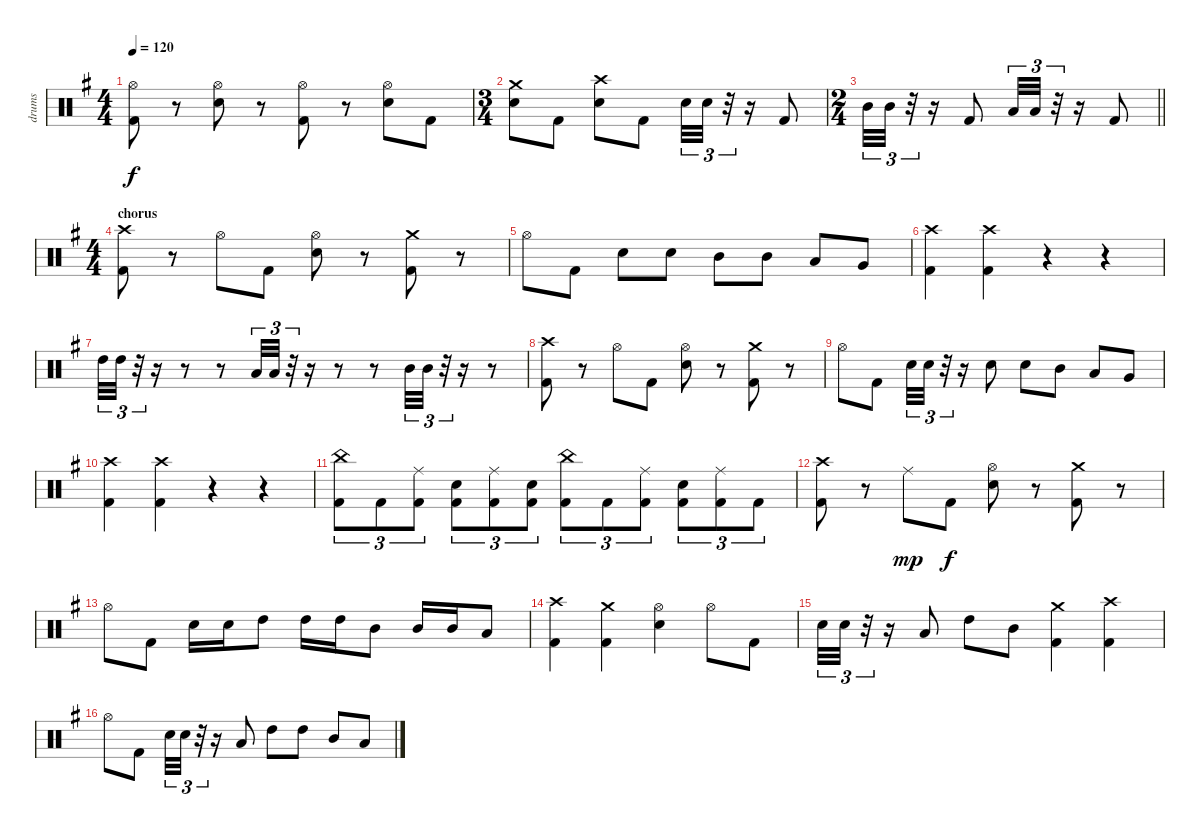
\track ("drums" "drums") {instrument percussion}
\staff {score}
\articulation defaults
\ts (4 4)
\tempo 120
\clef neutral
\ks g
("Hi-Hat (open)" "Kick (hit) 2").8{dy f} r.8 ("Hi-Hat (open)" "Snare (hit) 2").8 r.8 ("Hi-Hat (open)" "Kick (hit) 2").8 r.8 ("Hi-Hat (open)" "Snare (hit) 2").8 "Kick (hit) 2".8 |
\ts (3 4)
("Crash medium (hit)" "Snare (hit) 2").8 "Kick (hit) 2".8 ("Crash high (hit)" "Snare (hit) 2").8 "Kick (hit) 2".8 "Snare (hit) 2".32{tu (3 2)} "Snare (hit) 2".32{tu (3 2)} r.32{tu (3 2)} r.16 "Kick (hit) 2".8 |
\ts (2 4)
\barLineRight lightlight "Mid Tom (hit)".32{tu (3 2)} "Mid Tom (hit)".32{tu (3 2)}
r.32{tu (3 2)} r.16 "Kick (hit) 2".8 "Low Tom (hit)".32{tu (3 2)} "Low Tom (hit)".32{tu (3 2)} r.32{tu (3 2)} r.16 "Kick (hit) 2".8 |
\ts (4 4)
\section ("" "chorus")
("Crash high (hit)" "Kick (hit) 2").8 r.8 "Hi-Hat (open)".8 "Kick (hit) 2".8 ("Hi-Hat (open)" "Snare (hit) 2").8 r.8 ("Crash medium (hit)" "Kick (hit) 2").8 r.8 |
"Hi-Hat (open)".8 "Kick (hit) 2".8 "Snare (hit) 2".8 "Snare (hit) 2".8 "Mid Tom (hit)".8 "Mid Tom (hit)".8 "Low Tom (hit)".8 "Very Low Tom (hit)".8 |
("Crash high (hit)" "Kick (hit) 2").4 ("Crash high (hit)" "Kick (hit) 2").4 r.4 r.4 |
"High Tom (hit)".32{tu (3 2)} "High Tom (hit)".32{tu (3 2)} r.32{tu (3 2)} r.16 r.8 r.8 "Low Tom (hit)".32{tu (3 2)} "Low Tom (hit)".32{tu (3 2)} r.32{tu (3 2)} r.16 r.8 r.8 "Mid Tom (hit)".32{tu (3 2)} "Mid Tom (hit)".32{tu (3 2)} r.32{tu (3 2)} r.16 r.8 |
("Crash high (hit)" "Kick (hit) 2").8 r.8 "Hi-Hat (open)".8 "Kick (hit) 2".8 ("Hi-Hat (open)" "Snare (hit) 2").8 r.8 ("Crash medium (hit)" "Kick (hit) 2").8 r.8 |
"Hi-Hat (open)".8 "Kick (hit) 2".8 "Snare (hit) 2".32{tu (3 2)} "Snare (hit) 2".32{tu (3 2)} r.32{tu (3 2)} r.16 "Snare (hit) 2".8 "Snare (hit) 2".8 "Mid Tom (hit)".8 "Low Tom (hit)".8 "Very Low Tom (hit)".8 |
("Crash high (hit)" "Kick (hit) 2").4 ("Crash high (hit)" "Kick (hit) 2").4 r.4 r.4 |
("China (hit)" "Kick (hit) 2").8{tu (3 2)} "Kick (hit) 2".8{tu (3 2)} ("Ride (middle)" "Kick (hit) 2").8{tu (3 2)} ("Snare (hit) 2" "Kick (hit) 2").8{tu (3 2)} ("Ride (middle)" "Kick (hit) 2").8{tu (3 2)} ("Snare (hit) 2" "Kick (hit) 2").8{tu (3 2)} ("China (hit)" "Kick (hit) 2").8{tu (3 2)} "Kick (hit) 2".8{tu (3 2)} ("Ride (middle)" "Kick (hit) 2").8{tu (3 2)} ("Snare (hit) 2" "Kick (hit) 2").8{tu (3 2)} ("Ride (middle)" "Kick (hit) 2").8{tu (3 2)} "Kick (hit) 2".8{tu (3 2)} |
("Crash high (hit)" "Kick (hit) 2").8 r.8 "Ride (middle)".8{dy mp} "Kick (hit) 2".8{dy f} ("Hi-Hat (open)" "Snare (hit) 2").8 r.8 ("Crash medium (hit)" "Kick (hit) 2").8 r.8 |
"Hi-Hat (open)".8 "Kick (hit) 2".8 "Snare (hit) 2".16 "Snare (hit) 2".16 "High Tom (hit)".8 "High Tom (hit)".16 "High Tom (hit)".16 "Mid Tom (hit)".8 "Mid Tom (hit)".16 "Mid Tom (hit)".16 "Low Tom (hit)".8 |
("Crash high (hit)" "Kick (hit) 2").4 ("Crash medium (hit)" "Kick (hit) 2").4 ("Hi-Hat (open)" "Snare (hit) 2").4 "Hi-Hat (open)".8 "Kick (hit) 2".8 |
"Snare (hit) 2".32{tu (3 2)} "Snare (hit) 2".32{tu (3 2)} r.32{tu (3 2)} r.16 "Low Floor Tom (hit)".8 "High Tom (hit)".8 "Mid Tom (hit)".8 ("Crash medium (hit)" "Kick (hit) 2").4 ("Crash high (hit)" "Kick (hit) 2").4 |
"Hi-Hat (open)".8 "Kick (hit) 2".8 "Snare (hit) 2".32{tu (3 2)} "Snare (hit) 2".32{tu (3 2)} r.32{tu (3 2)} r.16 "Low Floor Tom (hit)".8 "High Tom (hit)".8 "High Tom (hit)".8 "Mid Tom (hit)".8 "Low Tom (hit)".8
